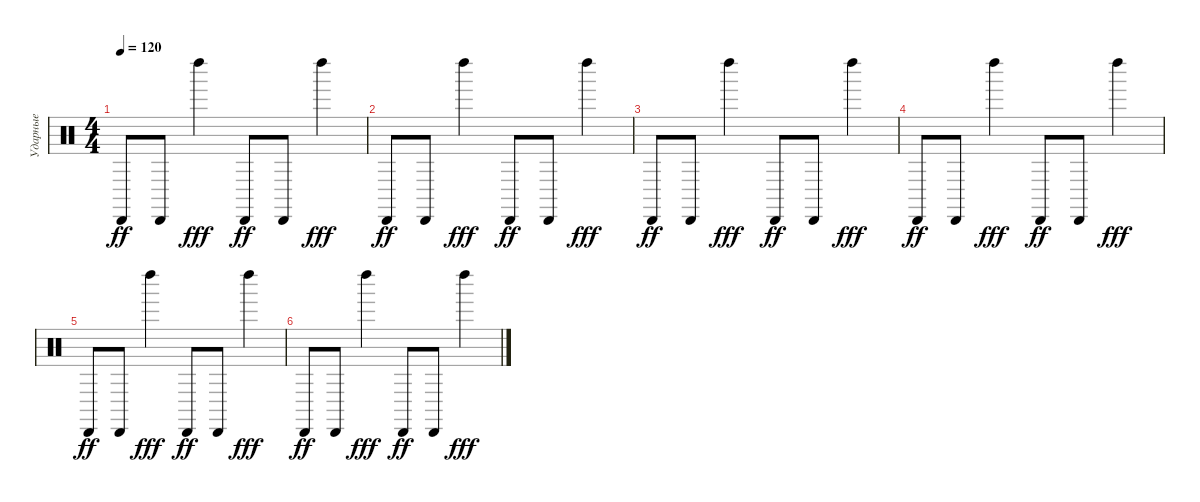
\track ("Ударные" "Ударные") {instrument percussion}
\staff {score}
\articulation defaults
\ts (4 4)
\tempo 120
\clef neutral
\ks c "Cabasa (hit)".8{dy ff} "Cabasa (hit)".8 "Left Maraca (hit)".4{dy fff} "Cabasa (hit)".8{dy ff} "Cabasa (hit)".8 "Left Maraca (hit)".4{dy fff}
|
"Cabasa (hit)".8{dy ff} "Cabasa (hit)".8 "Left Maraca (hit)".4{dy fff} "Cabasa (hit)".8{dy ff} "Cabasa (hit)".8 "Left Maraca (hit)".4{dy fff} |
"Cabasa (hit)".8{dy ff} "Cabasa (hit)".8 "Left Maraca (hit)".4{dy fff} "Cabasa (hit)".8{dy ff} "Cabasa (hit)".8 "Left Maraca (hit)".4{dy fff} |
"Cabasa (hit)".8{dy ff} "Cabasa (hit)".8 "Left Maraca (hit)".4{dy fff} "Cabasa (hit)".8{dy ff} "Cabasa (hit)".8 "Left Maraca (hit)".4{dy fff} |
"Cabasa (hit)".8{dy ff} "Cabasa (hit)".8 "Left Maraca (hit)".4{dy fff} "Cabasa (hit)".8{dy ff} "Cabasa (hit)".8 "Left Maraca (hit)".4{dy fff} |
"Cabasa (hit)".8{dy ff} "Cabasa (hit)".8 "Left Maraca (hit)".4{dy fff} "Cabasa (hit)".8{dy ff} "Cabasa (hit)".8 "Left Maraca (hit)".4{dy fff}
